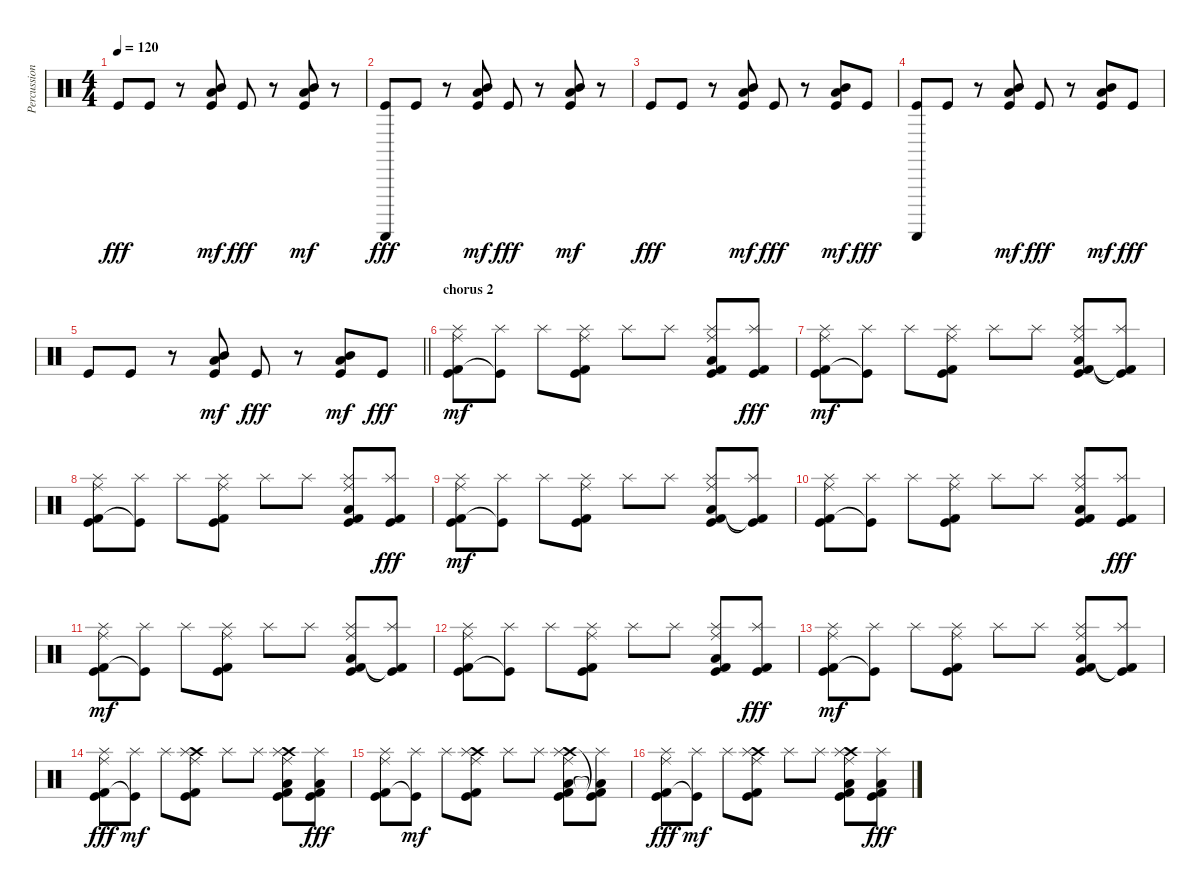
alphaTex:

\track ("Percussion" "Percussion") {instrument percussion}
\staff {score}
\articulation defaults
\ts (4 4)
\tempo 120
\clef neutral
\ks c "Kick (hit)".8{dy fff} "Kick (hit)".8
r.8 ("Mid Tom (hit)" "Low Floor Tom (hit)" "Kick (hit)").8{dy mf} "Kick (hit)".8{dy fff} r.8 ("Mid Tom (hit)" "Low Floor Tom (hit)" "Kick (hit)").8{dy mf} r.8 |
("Guiro (scrap-return)" "Kick (hit)").8{dy fff} "Kick (hit)".8 r.8 ("Mid Tom (hit)" "Low Floor Tom (hit)" "Kick (hit)").8{dy mf} "Kick (hit)".8{dy fff} r.8 ("Mid Tom (hit)" "Low Floor Tom (hit)" "Kick (hit)").8{dy mf} r.8 |
"Kick (hit)".8{dy fff} "Kick (hit)".8 r.8 ("Mid Tom (hit)" "Low Floor Tom (hit)" "Kick (hit)").8{dy mf} "Kick (hit)".8{dy fff} r.8 ("Mid Tom (hit)" "Low Floor Tom (hit)" "Kick (hit)").8{dy mf} "Kick (hit)".8{dy fff} |
("Guiro (scrap-return)" "Kick (hit)").8 "Kick (hit)".8 r.8 ("Mid Tom (hit)" "Low Floor Tom (hit)" "Kick (hit)").8{dy mf} "Kick (hit)".8{dy fff} r.8 ("Mid Tom (hit)" "Low Floor Tom (hit)" "Kick (hit)").8{dy mf} "Kick (hit)".8{dy fff} |
\barLineRight lightlight "Kick (hit)".8 "Kick (hit)".8
r.8 ("Mid Tom (hit)" "Low Floor Tom (hit)" "Kick (hit)").8{dy mf} "Kick (hit)".8{dy fff} r.8 ("Mid Tom (hit)" "Low Floor Tom (hit)" "Kick (hit)").8{dy mf} "Kick (hit)".8{dy fff} |
\section ("" "chorus 2")
("Splash (hit)" "Kick (hit) 2" "Kick (hit)" "Ride (middle)").8{dy mf} ("Splash (hit)" "Kick (hit)"{t}).8 "Splash (hit)".8 ("Splash (hit)" "Kick (hit) 2" "Kick (hit)" "Ride (middle)").8 "Splash (hit)".8 "Splash (hit)".8 ("Kick (hit) 2" "Splash (hit)" "Low Tom (hit)" "Kick (hit)" "Ride (middle)").8 ("Kick (hit) 2" "Splash (hit)" "Kick (hit)").8{dy fff} |
("Splash (hit)" "Kick (hit) 2" "Kick (hit)" "Ride (middle)").8{dy mf} ("Splash (hit)" "Kick (hit)"{t}).8 "Splash (hit)".8 ("Splash (hit)" "Kick (hit) 2" "Kick (hit)" "Ride (middle)").8 "Splash (hit)".8 "Splash (hit)".8 ("Kick (hit) 2" "Splash (hit)" "Low Tom (hit)" "Kick (hit)" "Ride (middle)").8 ("Kick (hit) 2"{t} "Splash (hit)" "Kick (hit)"{t}).8 |
("Splash (hit)" "Kick (hit) 2" "Kick (hit)" "Ride (middle)").8 ("Splash (hit)" "Kick (hit)"{t}).8 "Splash (hit)".8 ("Splash (hit)" "Kick (hit) 2" "Kick (hit)" "Ride (middle)").8 "Splash (hit)".8 "Splash (hit)".8 ("Kick (hit) 2" "Splash (hit)" "Low Tom (hit)" "Kick (hit)" "Ride (middle)").8 ("Kick (hit) 2" "Splash (hit)" "Kick (hit)").8{dy fff} |
("Splash (hit)" "Kick (hit) 2" "Kick (hit)" "Ride (middle)").8{dy mf} ("Splash (hit)" "Kick (hit)"{t}).8 "Splash (hit)".8 ("Splash (hit)" "Kick (hit) 2" "Kick (hit)" "Ride (middle)").8 "Splash (hit)".8 "Splash (hit)".8 ("Kick (hit) 2" "Splash (hit)" "Low Tom (hit)" "Kick (hit)" "Ride (middle)").8 ("Kick (hit) 2"{t} "Splash (hit)" "Kick (hit)"{t}).8 |
("Splash (hit)" "Kick (hit) 2" "Kick (hit)" "Ride (middle)").8 ("Splash (hit)" "Kick (hit)"{t}).8 "Splash (hit)".8 ("Splash (hit)" "Kick (hit) 2" "Kick (hit)" "Ride (middle)").8 "Splash (hit)".8 "Splash (hit)".8 ("Kick (hit) 2" "Splash (hit)" "Low Tom (hit)" "Kick (hit)" "Ride (middle)").8 ("Kick (hit) 2" "Splash (hit)" "Kick (hit)").8{dy fff} |
("Splash (hit)" "Kick (hit) 2" "Kick (hit)" "Ride (middle)").8{dy mf} ("Splash (hit)" "Kick (hit)"{t}).8 "Splash (hit)".8 ("Splash (hit)" "Kick (hit) 2" "Kick (hit)" "Ride (middle)").8 "Splash (hit)".8 "Splash (hit)".8 ("Kick (hit) 2" "Splash (hit)" "Low Tom (hit)" "Kick (hit)" "Ride (middle)").8 ("Kick (hit) 2"{t} "Splash (hit)" "Kick (hit)"{t}).8 |
("Splash (hit)" "Kick (hit) 2" "Kick (hit)" "Ride (middle)").8 ("Splash (hit)" "Kick (hit)"{t}).8 "Splash (hit)".8 ("Splash (hit)" "Kick (hit) 2" "Kick (hit)" "Ride (middle)").8 "Splash (hit)".8 "Splash (hit)".8 ("Kick (hit) 2" "Splash (hit)" "Low Tom (hit)" "Kick (hit)" "Ride (middle)").8 ("Kick (hit) 2" "Splash (hit)" "Kick (hit)").8{dy fff} |
("Splash (hit)" "Kick (hit) 2" "Kick (hit)" "Ride (middle)").8{dy mf} ("Splash (hit)" "Kick (hit)"{t}).8 "Splash (hit)".8 ("Splash (hit)" "Kick (hit) 2" "Kick (hit)" "Ride (middle)").8 "Splash (hit)".8 "Splash (hit)".8 ("Kick (hit) 2" "Splash (hit)" "Low Tom (hit)" "Kick (hit)" "Ride (middle)").8 ("Kick (hit) 2"{t} "Splash (hit)" "Kick (hit)"{t}).8 |
("Splash (hit)" "Kick (hit) 2" "Kick (hit)" "Ride (middle)").8{dy fff} ("Splash (hit)" "Kick (hit)"{t}).8{dy mf} "Splash (hit)".8 ("Crash high (hit)" "Splash (hit)" "Kick (hit) 2" "Kick (hit)" "Ride (middle)").8 "Splash (hit)".8 "Splash (hit)".8 ("Crash high (hit)" "Kick (hit) 2" "Splash (hit)" "Low Tom (hit)" "Kick (hit)" "Ride (middle)").8 ("Splash (hit)" "Low Tom (hit)" "Kick (hit)" "Kick (hit) 2").8{dy fff} |
("Splash (hit)" "Kick (hit) 2" "Kick (hit)" "Ride (middle)").8 ("Splash (hit)" "Kick (hit)"{t}).8{dy mf} "Splash (hit)".8 ("Crash high (hit)" "Splash (hit)" "Kick (hit) 2" "Kick (hit)" "Ride (middle)").8 "Splash (hit)".8 "Splash (hit)".8 ("Crash high (hit)" "Kick (hit) 2" "Splash (hit)" "Low Tom (hit)" "Kick (hit)" "Ride (middle)").8 ("Splash (hit)" "Low Tom (hit)"{t} "Kick (hit)"{t} "Kick (hit) 2"{t}).8 |
("Splash (hit)" "Kick (hit) 2" "Kick (hit)" "Ride (middle)").8{dy fff} ("Splash (hit)" "Kick (hit)"{t}).8{dy mf} "Splash (hit)".8 ("Crash high (hit)" "Splash (hit)" "Kick (hit) 2" "Kick (hit)" "Ride (middle)").8 "Splash (hit)".8 "Splash (hit)".8 ("Crash high (hit)" "Kick (hit) 2" "Splash (hit)" "Low Tom (hit)" "Kick (hit)" "Ride (middle)").8 ("Splash (hit)" "Low Tom (hit)" "Kick (hit)" "Kick (hit) 2").8{dy fff}
